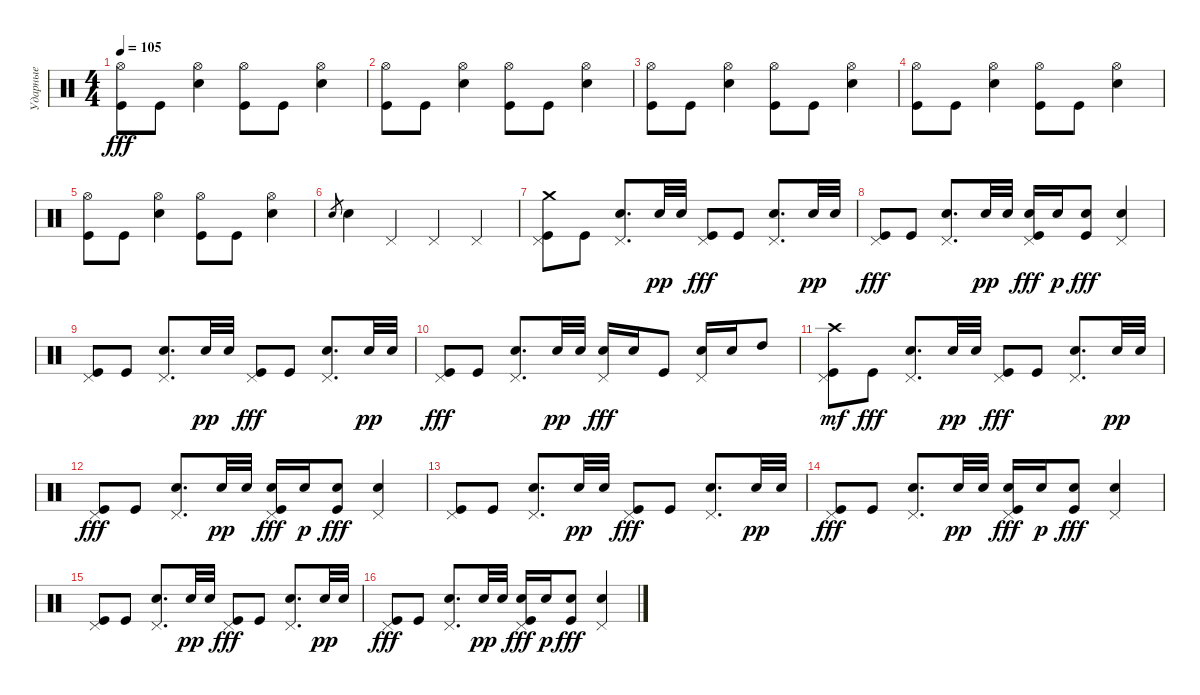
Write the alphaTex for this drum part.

\track ("Ударные" "Ударные") {instrument percussion}
\staff {score}
\articulation defaults
\ts (4 4)
\tempo 105
\clef neutral
\ks c
("Kick (hit)" "Hi-Hat (open)").8{dy fff} "Kick (hit)".8 ("Hi-Hat (open)" "Snare (hit) 2").4 ("Kick (hit)" "Hi-Hat (open)").8 "Kick (hit)".8 ("Hi-Hat (open)" "Snare (hit) 2").4 |
("Kick (hit)" "Hi-Hat (open)").8 "Kick (hit)".8 ("Hi-Hat (open)" "Snare (hit) 2").4 ("Kick (hit)" "Hi-Hat (open)").8 "Kick (hit)".8 ("Hi-Hat (open)" "Snare (hit) 2").4 |
("Kick (hit)" "Hi-Hat (open)").8 "Kick (hit)".8 ("Hi-Hat (open)" "Snare (hit) 2").4 ("Kick (hit)" "Hi-Hat (open)").8 "Kick (hit)".8 ("Hi-Hat (open)" "Snare (hit) 2").4 |
("Kick (hit)" "Hi-Hat (open)").8 "Kick (hit)".8 ("Hi-Hat (open)" "Snare (hit) 2").4 ("Kick (hit)" "Hi-Hat (open)").8 "Kick (hit)".8 ("Hi-Hat (open)" "Snare (hit) 2").4 |
("Kick (hit)" "Hi-Hat (open)").8 "Kick (hit)".8 ("Hi-Hat (open)" "Snare (hit) 2").4 ("Kick (hit)" "Hi-Hat (open)").8 "Kick (hit)".8 ("Hi-Hat (open)" "Snare (hit) 2").4 |
"Snare (hit) 2".8{gr} "Snare (hit) 2".4 "Pedal Hi-Hat (hit)".4 "Pedal Hi-Hat (hit)".4 "Pedal Hi-Hat (hit)".4 |
("Kick (hit)" "Pedal Hi-Hat (hit)" "Crash medium (hit)").8 "Kick (hit)".8 ("Snare (hit) 2" "Pedal Hi-Hat (hit)").8{d} "Snare (hit) 2".32{dy pp} "Snare (hit) 2".32 ("Kick (hit)" "Pedal Hi-Hat (hit)").8{dy fff} "Kick (hit)".8 ("Snare (hit) 2" "Pedal Hi-Hat (hit)").8{d} "Snare (hit) 2".32{dy pp} "Snare (hit) 2".32 |
("Kick (hit)" "Pedal Hi-Hat (hit)").8{dy fff} "Kick (hit)".8 ("Snare (hit) 2" "Pedal Hi-Hat (hit)").8{d} "Snare (hit) 2".32{dy pp} "Snare (hit) 2".32 ("Snare (hit) 2" "Kick (hit)" "Pedal Hi-Hat (hit)").16{dy fff} "Snare (hit) 2".16{dy p} ("Snare (hit) 2" "Kick (hit)").8{dy fff} ("Snare (hit) 2" "Pedal Hi-Hat (hit)").4 |
("Kick (hit)" "Pedal Hi-Hat (hit)").8 "Kick (hit)".8 ("Snare (hit) 2" "Pedal Hi-Hat (hit)").8{d} "Snare (hit) 2".32{dy pp} "Snare (hit) 2".32 ("Kick (hit)" "Pedal Hi-Hat (hit)").8{dy fff} "Kick (hit)".8 ("Snare (hit) 2" "Pedal Hi-Hat (hit)").8{d} "Snare (hit) 2".32{dy pp} "Snare (hit) 2".32 |
("Kick (hit)" "Pedal Hi-Hat (hit)").8{dy fff} "Kick (hit)".8 ("Snare (hit) 2" "Pedal Hi-Hat (hit)").8{d} "Snare (hit) 2".32{dy pp} "Snare (hit) 2".32 ("Snare (hit) 2" "Pedal Hi-Hat (hit)").16{dy fff} "Snare (hit) 2".16 "Kick (hit)".8 ("Snare (hit) 2" "Pedal Hi-Hat (hit)").16 "Snare (hit) 2".16 "High Tom (hit)".8 |
("Kick (hit)" "Pedal Hi-Hat (hit)" "Crash high (hit)").8{dy mf} "Kick (hit)".8{dy fff} ("Snare (hit) 2" "Pedal Hi-Hat (hit)").8{d} "Snare (hit) 2".32{dy pp} "Snare (hit) 2".32 ("Kick (hit)" "Pedal Hi-Hat (hit)").8{dy fff} "Kick (hit)".8 ("Snare (hit) 2" "Pedal Hi-Hat (hit)").8{d} "Snare (hit) 2".32{dy pp} "Snare (hit) 2".32 |
("Kick (hit)" "Pedal Hi-Hat (hit)").8{dy fff} "Kick (hit)".8 ("Snare (hit) 2" "Pedal Hi-Hat (hit)").8{d} "Snare (hit) 2".32{dy pp} "Snare (hit) 2".32 ("Snare (hit) 2" "Kick (hit)" "Pedal Hi-Hat (hit)").16{dy fff} "Snare (hit) 2".16{dy p} ("Snare (hit) 2" "Kick (hit)").8{dy fff} ("Snare (hit) 2" "Pedal Hi-Hat (hit)").4 |
("Kick (hit)" "Pedal Hi-Hat (hit)").8 "Kick (hit)".8 ("Snare (hit) 2" "Pedal Hi-Hat (hit)").8{d} "Snare (hit) 2".32{dy pp} "Snare (hit) 2".32 ("Kick (hit)" "Pedal Hi-Hat (hit)").8{dy fff} "Kick (hit)".8 ("Snare (hit) 2" "Pedal Hi-Hat (hit)").8{d} "Snare (hit) 2".32{dy pp} "Snare (hit) 2".32 |
("Kick (hit)" "Pedal Hi-Hat (hit)").8{dy fff} "Kick (hit)".8 ("Snare (hit) 2" "Pedal Hi-Hat (hit)").8{d} "Snare (hit) 2".32{dy pp} "Snare (hit) 2".32 ("Snare (hit) 2" "Kick (hit)" "Pedal Hi-Hat (hit)").16{dy fff} "Snare (hit) 2".16{dy p} ("Snare (hit) 2" "Kick (hit)").8{dy fff} ("Snare (hit) 2" "Pedal Hi-Hat (hit)").4 |
("Kick (hit)" "Pedal Hi-Hat (hit)").8 "Kick (hit)".8 ("Snare (hit) 2" "Pedal Hi-Hat (hit)").8{d} "Snare (hit) 2".32{dy pp} "Snare (hit) 2".32 ("Kick (hit)" "Pedal Hi-Hat (hit)").8{dy fff} "Kick (hit)".8 ("Snare (hit) 2" "Pedal Hi-Hat (hit)").8{d} "Snare (hit) 2".32{dy pp} "Snare (hit) 2".32 |
("Kick (hit)" "Pedal Hi-Hat (hit)").8{dy fff} "Kick (hit)".8 ("Snare (hit) 2" "Pedal Hi-Hat (hit)").8{d} "Snare (hit) 2".32{dy pp} "Snare (hit) 2".32 ("Snare (hit) 2" "Kick (hit)" "Pedal Hi-Hat (hit)").16{dy fff} "Snare (hit) 2".16{dy p} ("Snare (hit) 2" "Kick (hit)").8{dy fff} ("Snare (hit) 2" "Pedal Hi-Hat (hit)").4
